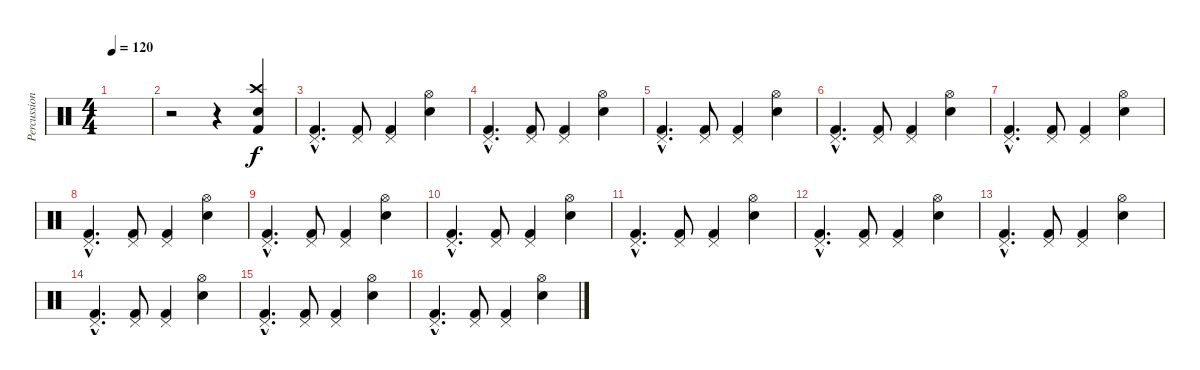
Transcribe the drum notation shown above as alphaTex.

\track ("Percussion" "Percussion") {instrument percussion}
\staff {score}
\articulation defaults
\ts (4 4)
\tempo 120
\clef neutral
\ks c
|
r.2 r.4 ("Kick (hit) 2" "Crash high (hit)" "Snare (hit) 2").4 |
("Pedal Hi-Hat (hit)"{hac} "Kick (hit) 2"{hac}).4{d} ("Pedal Hi-Hat (hit)" "Kick (hit) 2").8 ("Pedal Hi-Hat (hit)" "Kick (hit) 2").4 ("Hi-Hat (open)" "Snare (hit) 2").4 |
("Pedal Hi-Hat (hit)"{hac} "Kick (hit) 2"{hac}).4{d} ("Pedal Hi-Hat (hit)" "Kick (hit) 2").8 ("Pedal Hi-Hat (hit)" "Kick (hit) 2").4 ("Hi-Hat (open)" "Snare (hit) 2").4 |
("Pedal Hi-Hat (hit)"{hac} "Kick (hit) 2"{hac}).4{d} ("Pedal Hi-Hat (hit)" "Kick (hit) 2").8 ("Pedal Hi-Hat (hit)" "Kick (hit) 2").4 ("Hi-Hat (open)" "Snare (hit) 2").4 |
("Pedal Hi-Hat (hit)"{hac} "Kick (hit) 2"{hac}).4{d} ("Pedal Hi-Hat (hit)" "Kick (hit) 2").8 ("Pedal Hi-Hat (hit)" "Kick (hit) 2").4 ("Hi-Hat (open)" "Snare (hit) 2").4 |
("Pedal Hi-Hat (hit)"{hac} "Kick (hit) 2"{hac}).4{d} ("Pedal Hi-Hat (hit)" "Kick (hit) 2").8 ("Pedal Hi-Hat (hit)" "Kick (hit) 2").4 ("Hi-Hat (open)" "Snare (hit) 2").4 |
("Pedal Hi-Hat (hit)"{hac} "Kick (hit) 2"{hac}).4{d} ("Pedal Hi-Hat (hit)" "Kick (hit) 2").8 ("Pedal Hi-Hat (hit)" "Kick (hit) 2").4 ("Hi-Hat (open)" "Snare (hit) 2").4 |
("Pedal Hi-Hat (hit)"{hac} "Kick (hit) 2"{hac}).4{d} ("Pedal Hi-Hat (hit)" "Kick (hit) 2").8 ("Pedal Hi-Hat (hit)" "Kick (hit) 2").4 ("Hi-Hat (open)" "Snare (hit) 2").4 |
("Pedal Hi-Hat (hit)"{hac} "Kick (hit) 2"{hac}).4{d} ("Pedal Hi-Hat (hit)" "Kick (hit) 2").8 ("Pedal Hi-Hat (hit)" "Kick (hit) 2").4 ("Hi-Hat (open)" "Snare (hit) 2").4 |
("Pedal Hi-Hat (hit)"{hac} "Kick (hit) 2"{hac}).4{d} ("Pedal Hi-Hat (hit)" "Kick (hit) 2").8 ("Pedal Hi-Hat (hit)" "Kick (hit) 2").4 ("Hi-Hat (open)" "Snare (hit) 2").4 |
("Pedal Hi-Hat (hit)"{hac} "Kick (hit) 2"{hac}).4{d} ("Pedal Hi-Hat (hit)" "Kick (hit) 2").8 ("Pedal Hi-Hat (hit)" "Kick (hit) 2").4 ("Hi-Hat (open)" "Snare (hit) 2").4 |
("Pedal Hi-Hat (hit)"{hac} "Kick (hit) 2"{hac}).4{d} ("Pedal Hi-Hat (hit)" "Kick (hit) 2").8 ("Pedal Hi-Hat (hit)" "Kick (hit) 2").4 ("Hi-Hat (open)" "Snare (hit) 2").4 |
("Pedal Hi-Hat (hit)"{hac} "Kick (hit) 2"{hac}).4{d} ("Pedal Hi-Hat (hit)" "Kick (hit) 2").8 ("Pedal Hi-Hat (hit)" "Kick (hit) 2").4 ("Hi-Hat (open)" "Snare (hit) 2").4 |
("Pedal Hi-Hat (hit)"{hac} "Kick (hit) 2"{hac}).4{d} ("Pedal Hi-Hat (hit)" "Kick (hit) 2").8 ("Pedal Hi-Hat (hit)" "Kick (hit) 2").4 ("Hi-Hat (open)" "Snare (hit) 2").4 |
("Pedal Hi-Hat (hit)"{hac} "Kick (hit) 2"{hac}).4{d} ("Pedal Hi-Hat (hit)" "Kick (hit) 2").8 ("Pedal Hi-Hat (hit)" "Kick (hit) 2").4 ("Hi-Hat (open)" "Snare (hit) 2").4
